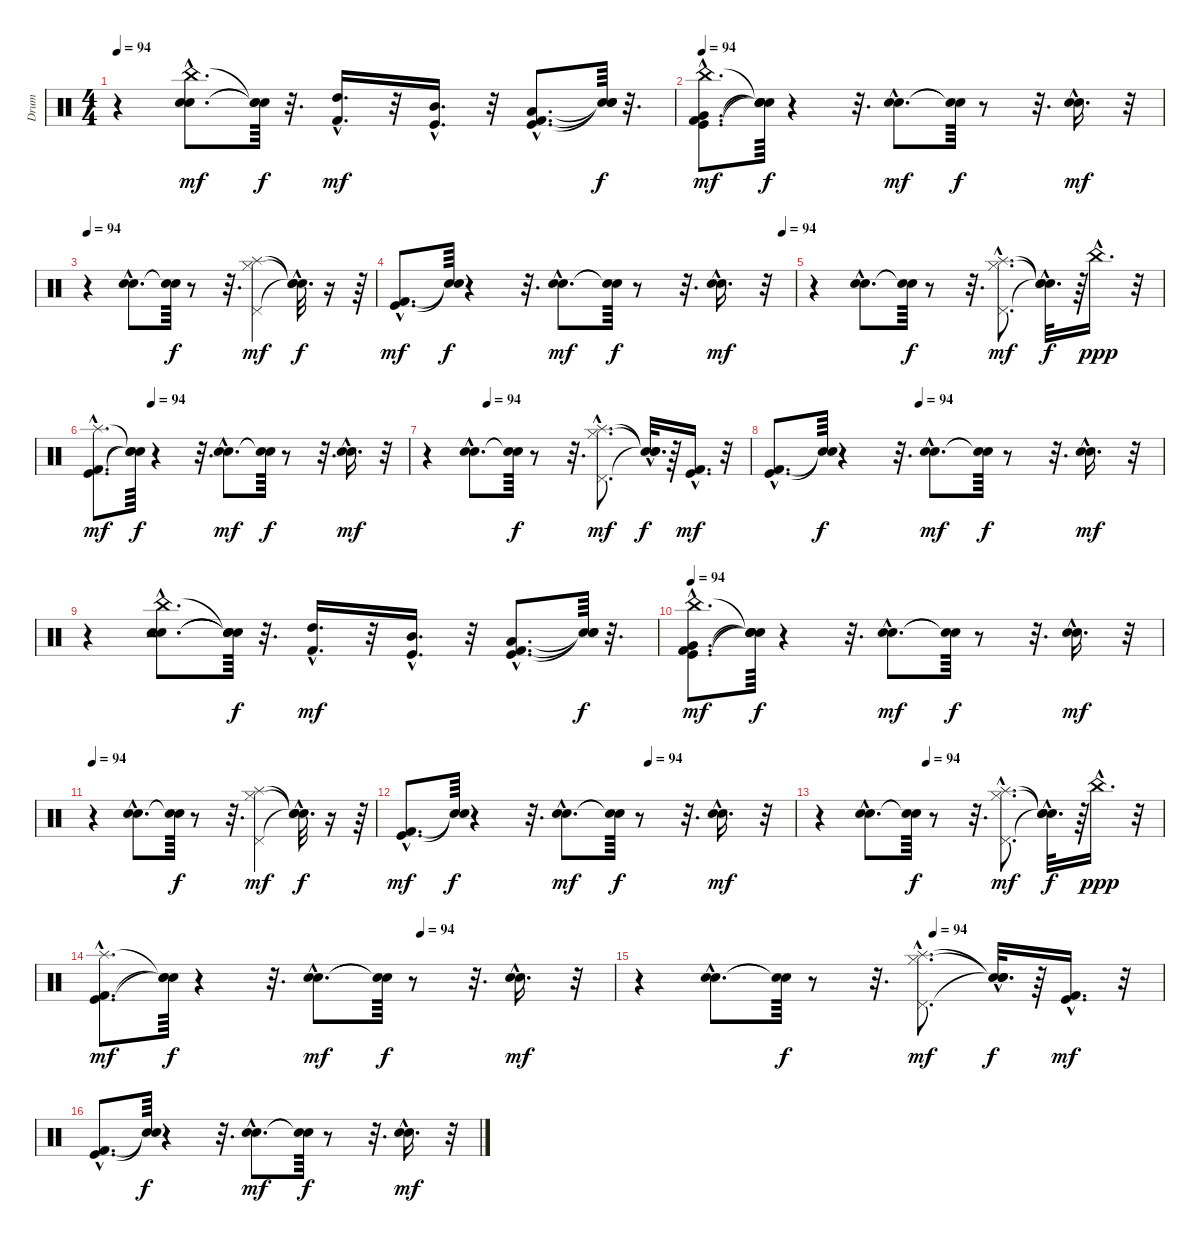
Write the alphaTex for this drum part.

\track ("Drum" "Drum") {instrument percussion}
\staff {score}
\articulation defaults
\ts (4 4)
\tempo 94
\clef neutral
\ks c
r.4{dy mf} ("Electric Snare (hit)"{hac} "China (hit)"{hac} "Snare (hit) 2"{hac}).8{d} ("Snare (hit)"{t} "Snare (hit)"{t} "Snare (hit)"{t}).64{dy f} r.32{d} ("High Tom (hit)"{hac} "Kick (hit) 2"{hac}).16{d dy mf} r.32 ("Mid Tom (hit)"{hac} "Kick (hit)"{hac}).16{d} r.32 ("Low Tom (hit)"{hac} "Kick (hit)"{hac} "Kick (hit) 2"{hac}).8{d} ("Snare (hit)"{t} "Snare (hit)"{t} "Snare (hit)"{t}).64{dy f} r.32{d} |
\tempo 94
("China (hit)"{hac} "Kick (hit) 2"{hac} "Very Low Tom (hit)"{hac} "Kick (hit)"{hac}).8{d dy mf} ("Snare (hit)"{t} "Snare (hit)"{t} "Snare (hit)"{t} "Snare (hit)"{t}).64{dy f} r.4 r.32{d} ("Electric Snare (hit)"{hac} "Snare (hit) 2"{hac}).8{d dy mf} ("Snare (hit)"{t} "Snare (hit)"{t}).64{dy f} r.8 r.32{d} ("Electric Snare (hit)"{hac} "Snare (hit) 2"{hac}).16{d dy mf} r.32 |
\tempo 94
r.4 ("Electric Snare (hit)"{hac} "Snare (hit) 2"{hac}).8{d} ("Snare (hit)"{t} "Snare (hit)"{t}).64{dy f} r.8 r.32{d} ("Pedal Hi-Hat (hit)" "Splash (hit)" "Hi-Hat (closed)").4{dy mf} ("Snare (hit)"{hac t} "Snare (hit)"{hac t} "Snare (hit)"{hac t}).32{d dy f} r.16 r.64 |
\tempo (94 0.96875)
("Kick (hit)"{hac} "Kick (hit) 2"{hac}).8{d dy mf} ("Snare (hit)"{t} "Snare (hit)"{t}).64{dy f} r.4 r.32{d} ("Electric Snare (hit)"{hac} "Snare (hit) 2"{hac}).8{d dy mf} ("Snare (hit)"{t} "Snare (hit)"{t}).64{dy f} r.8 r.32{d} ("Electric Snare (hit)"{hac} "Snare (hit) 2"{hac}).16{d dy mf} r.32 |
r.4 ("Electric Snare (hit)"{hac} "Snare (hit) 2"{hac}).8{d} ("Snare (hit)"{t} "Snare (hit)"{t}).64{dy f} r.8 r.32{d} ("Pedal Hi-Hat (hit)"{hac} "Hi-Hat (closed)"{hac} "Splash (hit)"{hac}).8{d dy mf} ("Snare (hit)"{hac t} "Snare (hit)"{hac t} "Snare (hit)"{hac t}).32{d dy f} r.64 "China (hit)"{hac}.16{d dy ppp} r.32 |
\tempo (94 0.1875)
("Kick (hit) 2"{hac} "Splash (hit)"{hac} "Kick (hit)"{hac}).8{d dy mf} ("Snare (hit)"{t} "Snare (hit)"{t} "Snare (hit)"{t}).64{dy f} r.4 r.32{d} ("Electric Snare (hit)"{hac} "Snare (hit) 2"{hac}).8{d dy mf} ("Snare (hit)"{t} "Snare (hit)"{t}).64{dy f} r.8 r.32{d} ("Electric Snare (hit)"{hac} "Snare (hit) 2"{hac}).16{d dy mf} r.32 |
\tempo (94 0.1875)
r.4 ("Electric Snare (hit)"{hac} "Snare (hit) 2"{hac}).8{d} ("Snare (hit)"{t} "Snare (hit)"{t}).64{dy f} r.8 r.32{d} ("Pedal Hi-Hat (hit)"{hac} "Hi-Hat (closed)"{hac} "Splash (hit)"{hac}).8{d dy mf} ("Snare (hit)"{hac t} "Snare (hit)"{hac t} "Snare (hit)"{hac t}).32{d dy f} r.64 ("Kick (hit) 2"{hac} "Kick (hit)"{hac}).16{d dy mf} r.32 |
\tempo (94 0.375)
("Kick (hit) 2"{hac} "Kick (hit)"{hac}).8{d} ("Snare (hit)"{t} "Snare (hit)"{t}).64{dy f} r.4 r.32{d} ("Electric Snare (hit)"{hac} "Snare (hit) 2"{hac}).8{d dy mf} ("Snare (hit)"{t} "Snare (hit)"{t}).64{dy f} r.8 r.32{d} ("Electric Snare (hit)"{hac} "Snare (hit) 2"{hac}).16{d dy mf} r.32 |
r.4 ("Electric Snare (hit)"{hac} "China (hit)"{hac} "Snare (hit) 2"{hac} "Tambourine (hit)"{hac}).8{d} ("Snare (hit)"{t} "Snare (hit)"{t} "Snare (hit)"{t} "Snare (hit)"{t}).64{dy f} r.32{d} ("Kick (hit) 2"{hac} "High Tom (hit)"{hac}).16{d dy mf} r.32 ("Kick (hit)"{hac} "Mid Tom (hit)"{hac}).16{d} r.32 ("Kick (hit) 2"{hac} "Kick (hit)"{hac} "Low Tom (hit)"{hac}).8{d} ("Snare (hit)"{t} "Snare (hit)"{t} "Snare (hit)"{t}).64{dy f} r.32{d} |
\tempo 94
("China (hit)"{hac} "Kick (hit) 2"{hac} "Very Low Tom (hit)"{hac} "Kick (hit)"{hac}).8{d dy mf} ("Snare (hit)"{t} "Snare (hit)"{t} "Snare (hit)"{t} "Snare (hit)"{t}).64{dy f} r.4 r.32{d} ("Electric Snare (hit)"{hac} "Snare (hit) 2"{hac}).8{d dy mf} ("Snare (hit)"{t} "Snare (hit)"{t}).64{dy f} r.8 r.32{d} ("Electric Snare (hit)"{hac} "Snare (hit) 2"{hac}).16{d dy mf} r.32 |
\tempo 94
r.4 ("Electric Snare (hit)"{hac} "Snare (hit) 2"{hac}).8{d} ("Snare (hit)"{t} "Snare (hit)"{t}).64{dy f} r.8 r.32{d} ("Pedal Hi-Hat (hit)" "Splash (hit)" "Hi-Hat (closed)").4{dy mf} ("Snare (hit)"{hac t} "Snare (hit)"{hac t} "Snare (hit)"{hac t}).32{d dy f} r.16 r.64 |
\tempo (94 0.625)
("Kick (hit)"{hac} "Kick (hit) 2"{hac}).8{d dy mf} ("Snare (hit)"{t} "Snare (hit)"{t}).64{dy f} r.4 r.32{d} ("Electric Snare (hit)"{hac} "Snare (hit) 2"{hac}).8{d dy mf} ("Snare (hit)"{t} "Snare (hit)"{t}).64{dy f} r.8 r.32{d} ("Electric Snare (hit)"{hac} "Snare (hit) 2"{hac}).16{d dy mf} r.32 |
\tempo (94 0.3125)
r.4 ("Electric Snare (hit)"{hac} "Snare (hit) 2"{hac}).8{d} ("Snare (hit)"{t} "Snare (hit)"{t}).64{dy f} r.8 r.32{d} ("Pedal Hi-Hat (hit)"{hac} "Hi-Hat (closed)"{hac} "Splash (hit)"{hac}).8{d dy mf} ("Snare (hit)"{hac t} "Snare (hit)"{hac t} "Snare (hit)"{hac t}).32{d dy f} r.64 "China (hit)"{hac}.16{d dy ppp} r.32 |
\tempo (94 0.625)
("Kick (hit) 2"{hac} "Splash (hit)"{hac} "Kick (hit)"{hac}).8{d dy mf} ("Snare (hit)"{t} "Snare (hit)"{t} "Snare (hit)"{t}).64{dy f} r.4 r.32{d} ("Electric Snare (hit)"{hac} "Snare (hit) 2"{hac}).8{d dy mf} ("Snare (hit)"{t} "Snare (hit)"{t}).64{dy f} r.8 r.32{d} ("Electric Snare (hit)"{hac} "Snare (hit) 2"{hac}).16{d dy mf} r.32 |
\tempo (94 0.5625)
r.4 ("Electric Snare (hit)"{hac} "Snare (hit) 2"{hac}).8{d} ("Snare (hit)"{t} "Snare (hit)"{t}).64{dy f} r.8 r.32{d} ("Pedal Hi-Hat (hit)"{hac} "Splash (hit)"{hac} "Hi-Hat (closed)"{hac}).8{d dy mf} ("Snare (hit)"{hac t} "Snare (hit)"{hac t} "Snare (hit)"{hac t}).32{d dy f} r.64 ("Kick (hit) 2"{hac} "Kick (hit)"{hac}).16{d dy mf} r.32 |
("Kick (hit) 2"{hac} "Kick (hit)"{hac}).8{d} ("Snare (hit)"{t} "Snare (hit)"{t}).64{dy f} r.4 r.32{d} ("Electric Snare (hit)"{hac} "Snare (hit) 2"{hac}).8{d dy mf} ("Snare (hit)"{t} "Snare (hit)"{t}).64{dy f} r.8 r.32{d} ("Electric Snare (hit)"{hac} "Snare (hit) 2"{hac}).16{d dy mf} r.32
